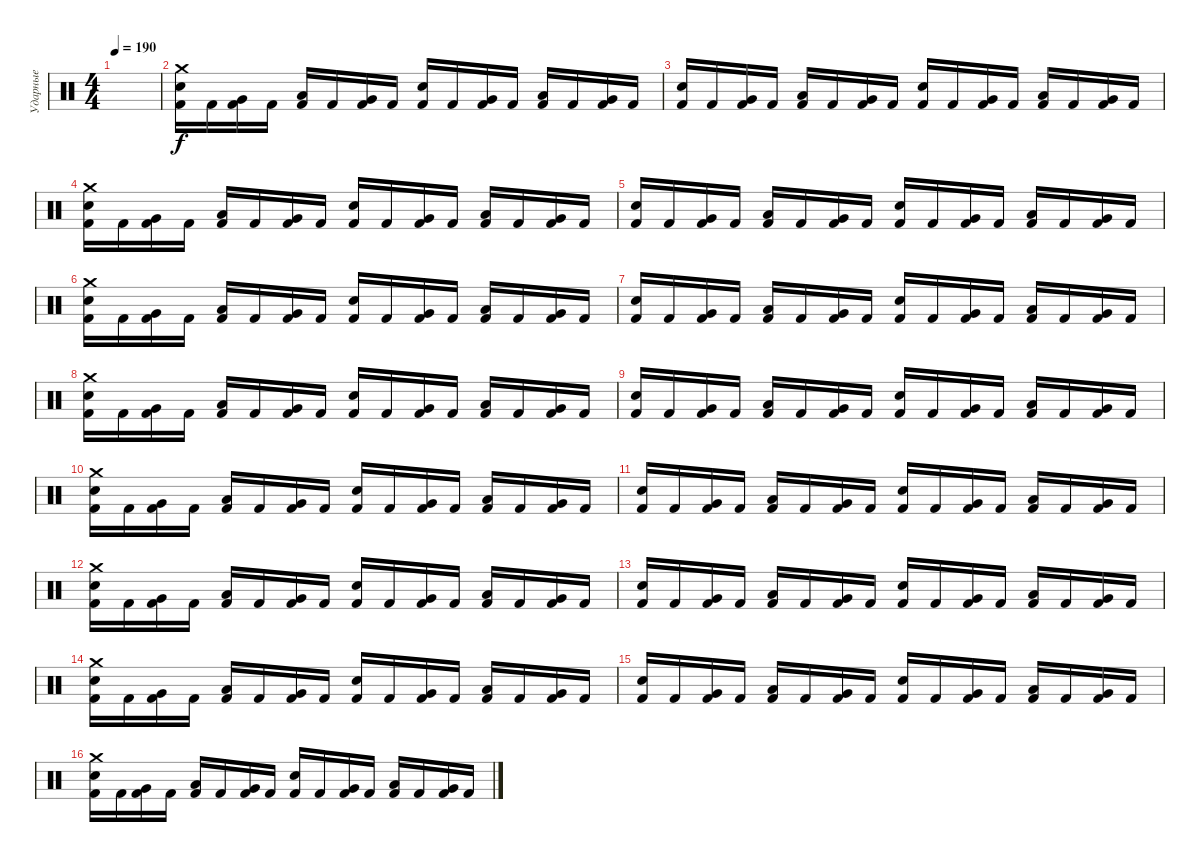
\track ("Ударные" "Ударные") {instrument percussion}
\staff {score}
\articulation defaults
\ts (4 4)
\tempo 190
\clef neutral
\ks c
|
("Crash medium (hit)" "Snare (hit) 2" "Kick (hit) 2").16 "Kick (hit) 2".16 ("Very Low Tom (hit)" "Kick (hit) 2").16 "Kick (hit) 2".16 ("Low Tom (hit)" "Kick (hit) 2").16 "Kick (hit) 2".16 ("Very Low Tom (hit)" "Kick (hit) 2").16 "Kick (hit) 2".16 ("Snare (hit) 2" "Kick (hit) 2").16 "Kick (hit) 2".16 ("Very Low Tom (hit)" "Kick (hit) 2").16 "Kick (hit) 2".16 ("Low Tom (hit)" "Kick (hit) 2").16 "Kick (hit) 2".16 ("Very Low Tom (hit)" "Kick (hit) 2").16 "Kick (hit) 2".16 |
("Snare (hit) 2" "Kick (hit) 2").16 "Kick (hit) 2".16 ("Very Low Tom (hit)" "Kick (hit) 2").16 "Kick (hit) 2".16 ("Low Tom (hit)" "Kick (hit) 2").16 "Kick (hit) 2".16 ("Very Low Tom (hit)" "Kick (hit) 2").16 "Kick (hit) 2".16 ("Snare (hit) 2" "Kick (hit) 2").16 "Kick (hit) 2".16 ("Very Low Tom (hit)" "Kick (hit) 2").16 "Kick (hit) 2".16 ("Low Tom (hit)" "Kick (hit) 2").16 "Kick (hit) 2".16 ("Very Low Tom (hit)" "Kick (hit) 2").16 "Kick (hit) 2".16 |
("Crash medium (hit)" "Snare (hit) 2" "Kick (hit) 2").16 "Kick (hit) 2".16 ("Very Low Tom (hit)" "Kick (hit) 2").16 "Kick (hit) 2".16 ("Low Tom (hit)" "Kick (hit) 2").16 "Kick (hit) 2".16 ("Very Low Tom (hit)" "Kick (hit) 2").16 "Kick (hit) 2".16 ("Snare (hit) 2" "Kick (hit) 2").16 "Kick (hit) 2".16 ("Very Low Tom (hit)" "Kick (hit) 2").16 "Kick (hit) 2".16 ("Low Tom (hit)" "Kick (hit) 2").16 "Kick (hit) 2".16 ("Very Low Tom (hit)" "Kick (hit) 2").16 "Kick (hit) 2".16 |
("Snare (hit) 2" "Kick (hit) 2").16 "Kick (hit) 2".16 ("Very Low Tom (hit)" "Kick (hit) 2").16 "Kick (hit) 2".16 ("Low Tom (hit)" "Kick (hit) 2").16 "Kick (hit) 2".16 ("Very Low Tom (hit)" "Kick (hit) 2").16 "Kick (hit) 2".16 ("Snare (hit) 2" "Kick (hit) 2").16 "Kick (hit) 2".16 ("Very Low Tom (hit)" "Kick (hit) 2").16 "Kick (hit) 2".16 ("Low Tom (hit)" "Kick (hit) 2").16 "Kick (hit) 2".16 ("Very Low Tom (hit)" "Kick (hit) 2").16 "Kick (hit) 2".16 |
("Crash medium (hit)" "Snare (hit) 2" "Kick (hit) 2").16 "Kick (hit) 2".16 ("Very Low Tom (hit)" "Kick (hit) 2").16 "Kick (hit) 2".16 ("Low Tom (hit)" "Kick (hit) 2").16 "Kick (hit) 2".16 ("Very Low Tom (hit)" "Kick (hit) 2").16 "Kick (hit) 2".16 ("Snare (hit) 2" "Kick (hit) 2").16 "Kick (hit) 2".16 ("Very Low Tom (hit)" "Kick (hit) 2").16 "Kick (hit) 2".16 ("Low Tom (hit)" "Kick (hit) 2").16 "Kick (hit) 2".16 ("Very Low Tom (hit)" "Kick (hit) 2").16 "Kick (hit) 2".16 |
("Snare (hit) 2" "Kick (hit) 2").16 "Kick (hit) 2".16 ("Very Low Tom (hit)" "Kick (hit) 2").16 "Kick (hit) 2".16 ("Low Tom (hit)" "Kick (hit) 2").16 "Kick (hit) 2".16 ("Very Low Tom (hit)" "Kick (hit) 2").16 "Kick (hit) 2".16 ("Snare (hit) 2" "Kick (hit) 2").16 "Kick (hit) 2".16 ("Very Low Tom (hit)" "Kick (hit) 2").16 "Kick (hit) 2".16 ("Low Tom (hit)" "Kick (hit) 2").16 "Kick (hit) 2".16 ("Very Low Tom (hit)" "Kick (hit) 2").16 "Kick (hit) 2".16 |
("Crash medium (hit)" "Snare (hit) 2" "Kick (hit) 2").16 "Kick (hit) 2".16 ("Very Low Tom (hit)" "Kick (hit) 2").16 "Kick (hit) 2".16 ("Low Tom (hit)" "Kick (hit) 2").16 "Kick (hit) 2".16 ("Very Low Tom (hit)" "Kick (hit) 2").16 "Kick (hit) 2".16 ("Snare (hit) 2" "Kick (hit) 2").16 "Kick (hit) 2".16 ("Very Low Tom (hit)" "Kick (hit) 2").16 "Kick (hit) 2".16 ("Low Tom (hit)" "Kick (hit) 2").16 "Kick (hit) 2".16 ("Very Low Tom (hit)" "Kick (hit) 2").16 "Kick (hit) 2".16 |
("Snare (hit) 2" "Kick (hit) 2").16 "Kick (hit) 2".16 ("Very Low Tom (hit)" "Kick (hit) 2").16 "Kick (hit) 2".16 ("Low Tom (hit)" "Kick (hit) 2").16 "Kick (hit) 2".16 ("Very Low Tom (hit)" "Kick (hit) 2").16 "Kick (hit) 2".16 ("Snare (hit) 2" "Kick (hit) 2").16 "Kick (hit) 2".16 ("Very Low Tom (hit)" "Kick (hit) 2").16 "Kick (hit) 2".16 ("Low Tom (hit)" "Kick (hit) 2").16 "Kick (hit) 2".16 ("Very Low Tom (hit)" "Kick (hit) 2").16 "Kick (hit) 2".16 |
("Crash medium (hit)" "Snare (hit) 2" "Kick (hit) 2").16 "Kick (hit) 2".16 ("Very Low Tom (hit)" "Kick (hit) 2").16 "Kick (hit) 2".16 ("Low Tom (hit)" "Kick (hit) 2").16 "Kick (hit) 2".16 ("Very Low Tom (hit)" "Kick (hit) 2").16 "Kick (hit) 2".16 ("Snare (hit) 2" "Kick (hit) 2").16 "Kick (hit) 2".16 ("Very Low Tom (hit)" "Kick (hit) 2").16 "Kick (hit) 2".16 ("Low Tom (hit)" "Kick (hit) 2").16 "Kick (hit) 2".16 ("Very Low Tom (hit)" "Kick (hit) 2").16 "Kick (hit) 2".16 |
("Snare (hit) 2" "Kick (hit) 2").16 "Kick (hit) 2".16 ("Very Low Tom (hit)" "Kick (hit) 2").16 "Kick (hit) 2".16 ("Low Tom (hit)" "Kick (hit) 2").16 "Kick (hit) 2".16 ("Very Low Tom (hit)" "Kick (hit) 2").16 "Kick (hit) 2".16 ("Snare (hit) 2" "Kick (hit) 2").16 "Kick (hit) 2".16 ("Very Low Tom (hit)" "Kick (hit) 2").16 "Kick (hit) 2".16 ("Low Tom (hit)" "Kick (hit) 2").16 "Kick (hit) 2".16 ("Very Low Tom (hit)" "Kick (hit) 2").16 "Kick (hit) 2".16 |
("Crash medium (hit)" "Snare (hit) 2" "Kick (hit) 2").16 "Kick (hit) 2".16 ("Very Low Tom (hit)" "Kick (hit) 2").16 "Kick (hit) 2".16 ("Low Tom (hit)" "Kick (hit) 2").16 "Kick (hit) 2".16 ("Very Low Tom (hit)" "Kick (hit) 2").16 "Kick (hit) 2".16 ("Snare (hit) 2" "Kick (hit) 2").16 "Kick (hit) 2".16 ("Very Low Tom (hit)" "Kick (hit) 2").16 "Kick (hit) 2".16 ("Low Tom (hit)" "Kick (hit) 2").16 "Kick (hit) 2".16 ("Very Low Tom (hit)" "Kick (hit) 2").16 "Kick (hit) 2".16 |
("Snare (hit) 2" "Kick (hit) 2").16 "Kick (hit) 2".16 ("Very Low Tom (hit)" "Kick (hit) 2").16 "Kick (hit) 2".16 ("Low Tom (hit)" "Kick (hit) 2").16 "Kick (hit) 2".16 ("Very Low Tom (hit)" "Kick (hit) 2").16 "Kick (hit) 2".16 ("Snare (hit) 2" "Kick (hit) 2").16 "Kick (hit) 2".16 ("Very Low Tom (hit)" "Kick (hit) 2").16 "Kick (hit) 2".16 ("Low Tom (hit)" "Kick (hit) 2").16 "Kick (hit) 2".16 ("Very Low Tom (hit)" "Kick (hit) 2").16 "Kick (hit) 2".16 |
("Crash medium (hit)" "Snare (hit) 2" "Kick (hit) 2").16 "Kick (hit) 2".16 ("Very Low Tom (hit)" "Kick (hit) 2").16 "Kick (hit) 2".16 ("Low Tom (hit)" "Kick (hit) 2").16 "Kick (hit) 2".16 ("Very Low Tom (hit)" "Kick (hit) 2").16 "Kick (hit) 2".16 ("Snare (hit) 2" "Kick (hit) 2").16 "Kick (hit) 2".16 ("Very Low Tom (hit)" "Kick (hit) 2").16 "Kick (hit) 2".16 ("Low Tom (hit)" "Kick (hit) 2").16 "Kick (hit) 2".16 ("Very Low Tom (hit)" "Kick (hit) 2").16 "Kick (hit) 2".16 |
("Snare (hit) 2" "Kick (hit) 2").16 "Kick (hit) 2".16 ("Very Low Tom (hit)" "Kick (hit) 2").16 "Kick (hit) 2".16 ("Low Tom (hit)" "Kick (hit) 2").16 "Kick (hit) 2".16 ("Very Low Tom (hit)" "Kick (hit) 2").16 "Kick (hit) 2".16 ("Snare (hit) 2" "Kick (hit) 2").16 "Kick (hit) 2".16 ("Very Low Tom (hit)" "Kick (hit) 2").16 "Kick (hit) 2".16 ("Low Tom (hit)" "Kick (hit) 2").16 "Kick (hit) 2".16 ("Very Low Tom (hit)" "Kick (hit) 2").16 "Kick (hit) 2".16 |
("Crash medium (hit)" "Snare (hit) 2" "Kick (hit) 2").16 "Kick (hit) 2".16 ("Very Low Tom (hit)" "Kick (hit) 2").16 "Kick (hit) 2".16 ("Low Tom (hit)" "Kick (hit) 2").16 "Kick (hit) 2".16 ("Very Low Tom (hit)" "Kick (hit) 2").16 "Kick (hit) 2".16 ("Snare (hit) 2" "Kick (hit) 2").16 "Kick (hit) 2".16 ("Very Low Tom (hit)" "Kick (hit) 2").16 "Kick (hit) 2".16 ("Low Tom (hit)" "Kick (hit) 2").16 "Kick (hit) 2".16 ("Very Low Tom (hit)" "Kick (hit) 2").16 "Kick (hit) 2".16
